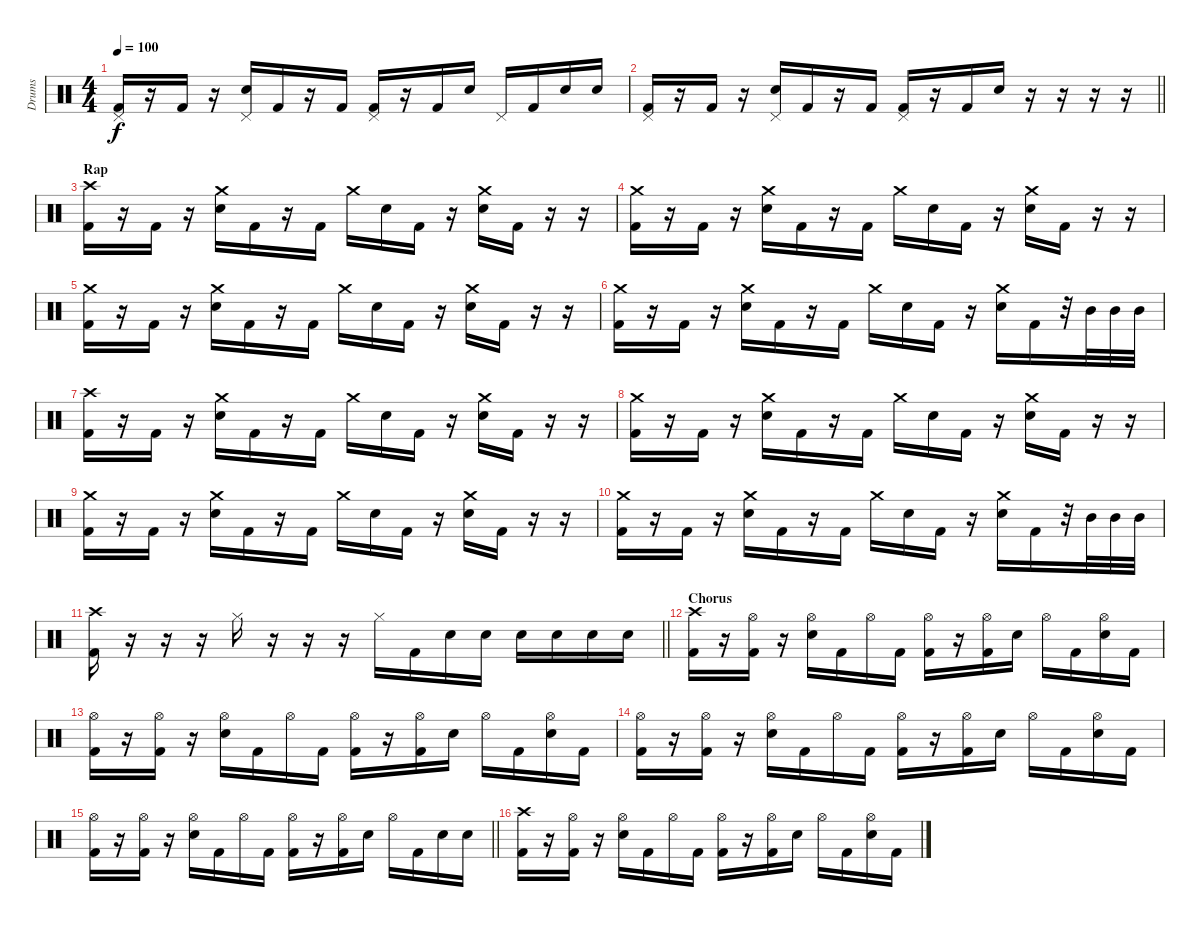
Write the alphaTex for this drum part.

\track ("Drums" "Drums") {instrument percussion}
\staff {score}
\articulation defaults
\ts (4 4)
\tempo 100
\clef neutral
\ks c
("Pedal Hi-Hat (hit)" "Kick (hit) 2").16{dy f} r.16 "Kick (hit) 2".16 r.16 ("Pedal Hi-Hat (hit)" "Snare (hit) 2").16 "Kick (hit) 2".16 r.16 "Kick (hit) 2".16 ("Pedal Hi-Hat (hit)" "Kick (hit) 2").16 r.16 "Kick (hit) 2".16 "Snare (hit) 2".16 "Pedal Hi-Hat (hit)".16 "Kick (hit) 2".16 "Snare (hit) 2".16 "Snare (hit) 2".16 |
\barLineRight lightlight
("Pedal Hi-Hat (hit)" "Kick (hit) 2").16 r.16 "Kick (hit) 2".16 r.16 ("Pedal Hi-Hat (hit)" "Snare (hit) 2").16 "Kick (hit) 2".16 r.16 "Kick (hit) 2".16 ("Pedal Hi-Hat (hit)" "Kick (hit) 2").16 r.16 "Kick (hit) 2".16 "Snare (hit) 2".16 r.16 r.16 r.16 r.16 |
\section ("" "Rap")
("Crash high (hit)" "Kick (hit) 2").16 r.16 "Kick (hit) 2".16 r.16 ("Crash medium (hit)" "Snare (hit) 2").16 "Kick (hit) 2".16 r.16 "Kick (hit) 2".16 "Crash medium (hit)".16 "Snare (hit) 2".16 "Kick (hit) 2".16 r.16 ("Crash medium (hit)" "Snare (hit) 2").16 "Kick (hit) 2".16 r.16 r.16 |
("Crash medium (hit)" "Kick (hit) 2").16 r.16 "Kick (hit) 2".16 r.16 ("Crash medium (hit)" "Snare (hit) 2").16 "Kick (hit) 2".16 r.16 "Kick (hit) 2".16 "Crash medium (hit)".16 "Snare (hit) 2".16 "Kick (hit) 2".16 r.16 ("Crash medium (hit)" "Snare (hit) 2").16 "Kick (hit) 2".16 r.16 r.16 |
("Crash medium (hit)" "Kick (hit) 2").16 r.16 "Kick (hit) 2".16 r.16 ("Crash medium (hit)" "Snare (hit) 2").16 "Kick (hit) 2".16 r.16 "Kick (hit) 2".16 "Crash medium (hit)".16 "Snare (hit) 2".16 "Kick (hit) 2".16 r.16 ("Crash medium (hit)" "Snare (hit) 2").16 "Kick (hit) 2".16 r.16 r.16 |
("Crash medium (hit)" "Kick (hit) 2").16 r.16 "Kick (hit) 2".16 r.16 ("Crash medium (hit)" "Snare (hit) 2").16 "Kick (hit) 2".16 r.16 "Kick (hit) 2".16 "Crash medium (hit)".16 "Snare (hit) 2".16 "Kick (hit) 2".16 r.16 ("Crash medium (hit)" "Snare (hit) 2").16 "Kick (hit) 2".16 r.32 "Mid Tom (hit)".32 "Mid Tom (hit)".32 "Mid Tom (hit)".32 |
("Crash high (hit)" "Kick (hit) 2").16 r.16 "Kick (hit) 2".16 r.16 ("Crash medium (hit)" "Snare (hit) 2").16 "Kick (hit) 2".16 r.16 "Kick (hit) 2".16 "Crash medium (hit)".16 "Snare (hit) 2".16 "Kick (hit) 2".16 r.16 ("Crash medium (hit)" "Snare (hit) 2").16 "Kick (hit) 2".16 r.16 r.16 |
("Crash medium (hit)" "Kick (hit) 2").16 r.16 "Kick (hit) 2".16 r.16 ("Crash medium (hit)" "Snare (hit) 2").16 "Kick (hit) 2".16 r.16 "Kick (hit) 2".16 "Crash medium (hit)".16 "Snare (hit) 2".16 "Kick (hit) 2".16 r.16 ("Crash medium (hit)" "Snare (hit) 2").16 "Kick (hit) 2".16 r.16 r.16 |
("Crash medium (hit)" "Kick (hit) 2").16 r.16 "Kick (hit) 2".16 r.16 ("Crash medium (hit)" "Snare (hit) 2").16 "Kick (hit) 2".16 r.16 "Kick (hit) 2".16 "Crash medium (hit)".16 "Snare (hit) 2".16 "Kick (hit) 2".16 r.16 ("Crash medium (hit)" "Snare (hit) 2").16 "Kick (hit) 2".16 r.16 r.16 |
("Crash medium (hit)" "Kick (hit) 2").16 r.16 "Kick (hit) 2".16 r.16 ("Crash medium (hit)" "Snare (hit) 2").16 "Kick (hit) 2".16 r.16 "Kick (hit) 2".16 "Crash medium (hit)".16 "Snare (hit) 2".16 "Kick (hit) 2".16 r.16 ("Crash medium (hit)" "Snare (hit) 2").16 "Kick (hit) 2".16 r.32 "Mid Tom (hit)".32 "Mid Tom (hit)".32 "Mid Tom (hit)".32 |
\barLineRight lightlight
("Crash high (hit)" "Kick (hit) 2").16 r.16 r.16 r.16 "Hi-Hat (closed)".16 r.16 r.16 r.16 "Hi-Hat (closed)".16 "Kick (hit) 2".16 "Snare (hit) 2".16 "Snare (hit) 2".16 "Snare (hit) 2".16 "Snare (hit) 2".16 "Snare (hit) 2".16 "Snare (hit) 2".16 |
\section ("" "Chorus")
("Crash high (hit)" "Kick (hit) 2").16 r.16 ("Hi-Hat (open)" "Kick (hit) 2").16 r.16 ("Hi-Hat (open)" "Snare (hit) 2").16 "Kick (hit) 2".16 "Hi-Hat (open)".16 "Kick (hit) 2".16 ("Hi-Hat (open)" "Kick (hit) 2").16 r.16 ("Hi-Hat (open)" "Kick (hit) 2").16 "Snare (hit) 2".16 "Hi-Hat (open)".16 "Kick (hit) 2".16 ("Hi-Hat (open)" "Snare (hit) 2").16 "Kick (hit) 2".16 |
("Hi-Hat (open)" "Kick (hit) 2").16 r.16 ("Hi-Hat (open)" "Kick (hit) 2").16 r.16 ("Hi-Hat (open)" "Snare (hit) 2").16 "Kick (hit) 2".16 "Hi-Hat (open)".16 "Kick (hit) 2".16 ("Hi-Hat (open)" "Kick (hit) 2").16 r.16 ("Hi-Hat (open)" "Kick (hit) 2").16 "Snare (hit) 2".16 "Hi-Hat (open)".16 "Kick (hit) 2".16 ("Hi-Hat (open)" "Snare (hit) 2").16 "Kick (hit) 2".16 |
("Hi-Hat (open)" "Kick (hit) 2").16 r.16 ("Hi-Hat (open)" "Kick (hit) 2").16 r.16 ("Hi-Hat (open)" "Snare (hit) 2").16 "Kick (hit) 2".16 "Hi-Hat (open)".16 "Kick (hit) 2".16 ("Hi-Hat (open)" "Kick (hit) 2").16 r.16 ("Hi-Hat (open)" "Kick (hit) 2").16 "Snare (hit) 2".16 "Hi-Hat (open)".16 "Kick (hit) 2".16 ("Hi-Hat (open)" "Snare (hit) 2").16 "Kick (hit) 2".16 |
\barLineRight lightlight
("Hi-Hat (open)" "Kick (hit) 2").16 r.16 ("Hi-Hat (open)" "Kick (hit) 2").16 r.16 ("Hi-Hat (open)" "Snare (hit) 2").16 "Kick (hit) 2".16 "Hi-Hat (open)".16 "Kick (hit) 2".16 ("Hi-Hat (open)" "Kick (hit) 2").16 r.16 ("Hi-Hat (open)" "Kick (hit) 2").16 "Snare (hit) 2".16 "Hi-Hat (open)".16 "Kick (hit) 2".16 "Snare (hit) 2".16 "Snare (hit) 2".16 |
("Crash high (hit)" "Kick (hit) 2").16 r.16 ("Hi-Hat (open)" "Kick (hit) 2").16 r.16 ("Hi-Hat (open)" "Snare (hit) 2").16 "Kick (hit) 2".16 "Hi-Hat (open)".16 "Kick (hit) 2".16 ("Hi-Hat (open)" "Kick (hit) 2").16 r.16 ("Hi-Hat (open)" "Kick (hit) 2").16 "Snare (hit) 2".16 "Hi-Hat (open)".16 "Kick (hit) 2".16 ("Hi-Hat (open)" "Snare (hit) 2").16 "Kick (hit) 2".16
